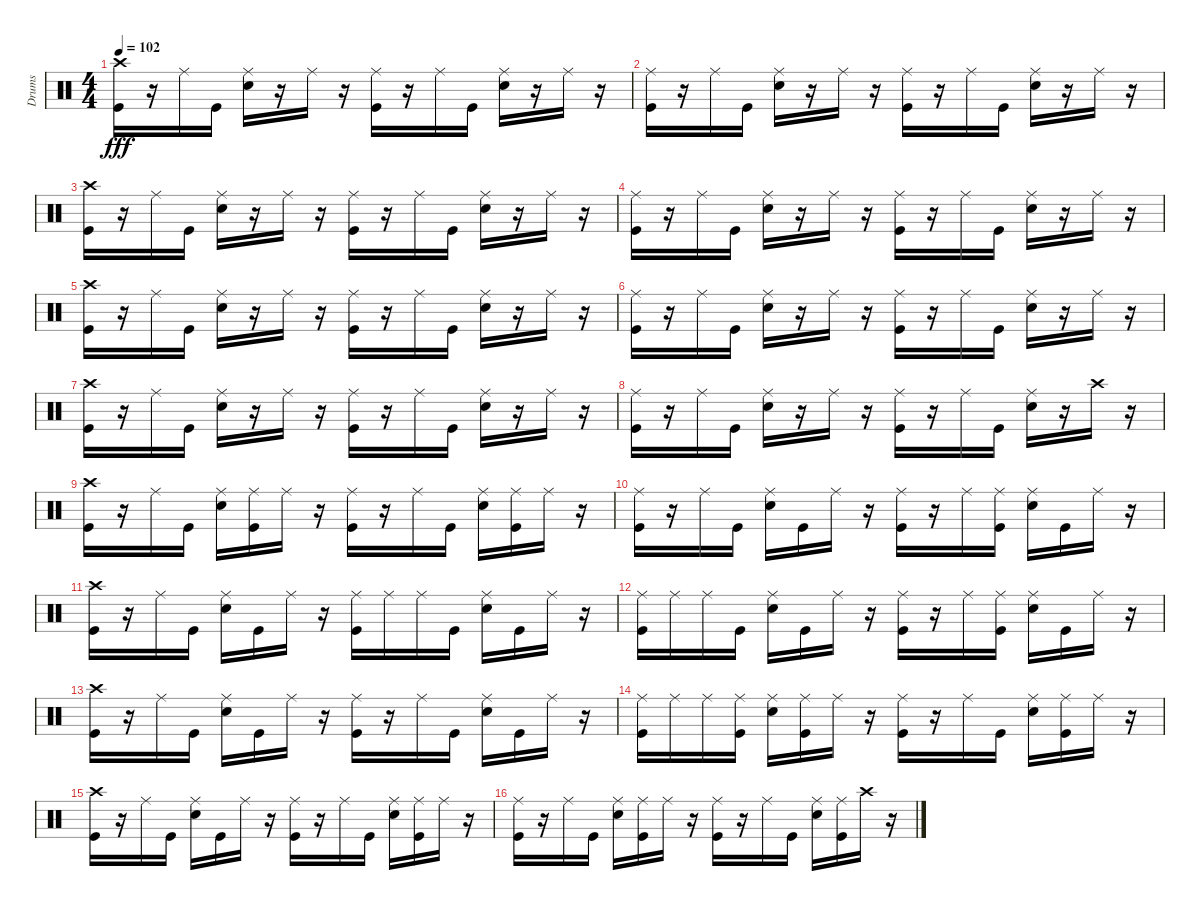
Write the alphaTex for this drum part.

\track ("Drums" "Drums") {instrument percussion}
\staff {score}
\articulation defaults
\ts (4 4)
\tempo 102
\clef neutral
\ks c
("Crash high (hit)" "Kick (hit)").16{dy fff} r.16 "Ride (middle)".16 "Kick (hit)".16 ("Ride (middle)" "Snare (hit) 2").16 r.16 "Ride (middle)".16 r.16 ("Kick (hit)" "Ride (middle)").16 r.16 "Ride (middle)".16 "Kick (hit)".16 ("Snare (hit) 2" "Ride (middle)").16 r.16 "Ride (middle)".16 r.16 |
("Ride (middle)" "Kick (hit)").16 r.16 "Ride (middle)".16 "Kick (hit)".16 ("Snare (hit) 2" "Ride (middle)").16 r.16 "Ride (middle)".16 r.16 ("Ride (middle)" "Kick (hit)").16 r.16 "Ride (middle)".16 "Kick (hit)".16 ("Ride (middle)" "Snare (hit) 2").16 r.16 "Ride (middle)".16 r.16 |
("Kick (hit)" "Crash high (hit)").16 r.16 "Ride (middle)".16 "Kick (hit)".16 ("Snare (hit) 2" "Ride (middle)").16 r.16 "Ride (middle)".16 r.16 ("Ride (middle)" "Kick (hit)").16 r.16 "Ride (middle)".16 "Kick (hit)".16 ("Ride (middle)" "Snare (hit) 2").16 r.16 "Ride (middle)".16 r.16 |
("Kick (hit)" "Ride (middle)").16 r.16 "Ride (middle)".16 "Kick (hit)".16 ("Ride (middle)" "Snare (hit) 2").16 r.16 "Ride (middle)".16 r.16 ("Kick (hit)" "Ride (middle)").16 r.16 "Ride (middle)".16 "Kick (hit)".16 ("Snare (hit) 2" "Ride (middle)").16 r.16 "Ride (middle)".16 r.16 |
("Kick (hit)" "Crash high (hit)").16 r.16 "Ride (middle)".16 "Kick (hit)".16 ("Snare (hit) 2" "Ride (middle)").16 r.16 "Ride (middle)".16 r.16 ("Ride (middle)" "Kick (hit)").16 r.16 "Ride (middle)".16 "Kick (hit)".16 ("Ride (middle)" "Snare (hit) 2").16 r.16 "Ride (middle)".16 r.16 |
("Kick (hit)" "Ride (middle)").16 r.16 "Ride (middle)".16 "Kick (hit)".16 ("Ride (middle)" "Snare (hit) 2").16 r.16 "Ride (middle)".16 r.16 ("Kick (hit)" "Ride (middle)").16 r.16 "Ride (middle)".16 "Kick (hit)".16 ("Snare (hit) 2" "Ride (middle)").16 r.16 "Ride (middle)".16 r.16 |
("Crash high (hit)" "Kick (hit)").16 r.16 "Ride (middle)".16 "Kick (hit)".16 ("Ride (middle)" "Snare (hit) 2").16 r.16 "Ride (middle)".16 r.16 ("Kick (hit)" "Ride (middle)").16 r.16 "Ride (middle)".16 "Kick (hit)".16 ("Snare (hit) 2" "Ride (middle)").16 r.16 "Ride (middle)".16 r.16 |
("Ride (middle)" "Kick (hit)").16 r.16 "Ride (middle)".16 "Kick (hit)".16 ("Snare (hit) 2" "Ride (middle)").16 r.16 "Ride (middle)".16 r.16 ("Ride (middle)" "Kick (hit)").16 r.16 "Ride (middle)".16 "Kick (hit)".16 ("Ride (middle)" "Snare (hit) 2").16 r.16 "Crash high (hit)".16 r.16 |
("Crash high (hit)" "Kick (hit)").16 r.16 "Ride (middle)".16 "Kick (hit)".16 ("Ride (middle)" "Snare (hit) 2").16 ("Kick (hit)" "Ride (middle)").16 "Ride (middle)".16 r.16 ("Kick (hit)" "Ride (middle)").16 r.16 "Ride (middle)".16 "Kick (hit)".16 ("Snare (hit) 2" "Ride (middle)").16 ("Kick (hit)" "Ride (middle)").16 "Ride (middle)".16 r.16 |
("Ride (middle)" "Kick (hit)").16 r.16 "Ride (middle)".16 "Kick (hit)".16 ("Snare (hit) 2" "Ride (middle)").16 "Kick (hit)".16 "Ride (middle)".16 r.16 ("Ride (middle)" "Kick (hit)").16 r.16 "Ride (middle)".16 ("Ride (middle)" "Kick (hit)").16 ("Ride (middle)" "Snare (hit) 2").16 "Kick (hit)".16 "Ride (middle)".16 r.16 |
("Kick (hit)" "Crash high (hit)").16 r.16 "Ride (middle)".16 "Kick (hit)".16 ("Snare (hit) 2" "Ride (middle)").16 "Kick (hit)".16 "Ride (middle)".16 r.16 ("Ride (middle)" "Kick (hit)").16 "Ride (middle)".16 "Ride (middle)".16 "Kick (hit)".16 ("Ride (middle)" "Snare (hit) 2").16 "Kick (hit)".16 "Ride (middle)".16 r.16 |
("Kick (hit)" "Ride (middle)").16 "Ride (middle)".16 "Ride (middle)".16 "Kick (hit)".16 ("Ride (middle)" "Snare (hit) 2").16 "Kick (hit)".16 "Ride (middle)".16 r.16 ("Kick (hit)" "Ride (middle)").16 r.16 "Ride (middle)".16 ("Kick (hit)" "Ride (middle)").16 ("Snare (hit) 2" "Ride (middle)").16 "Kick (hit)".16 "Ride (middle)".16 r.16 |
("Crash high (hit)" "Kick (hit)").16 r.16 "Ride (middle)".16 "Kick (hit)".16 ("Ride (middle)" "Snare (hit) 2").16 "Kick (hit)".16 "Ride (middle)".16 r.16 ("Kick (hit)" "Ride (middle)").16 r.16 "Ride (middle)".16 "Kick (hit)".16 ("Snare (hit) 2" "Ride (middle)").16 "Kick (hit)".16 "Ride (middle)".16 r.16 |
("Ride (middle)" "Kick (hit)").16 "Ride (middle)".16 "Ride (middle)".16 ("Ride (middle)" "Kick (hit)").16 ("Snare (hit) 2" "Ride (middle)").16 ("Ride (middle)" "Kick (hit)").16 "Ride (middle)".16 r.16 ("Ride (middle)" "Kick (hit)").16 r.16 "Ride (middle)".16 "Kick (hit)".16 ("Ride (middle)" "Snare (hit) 2").16 ("Ride (middle)" "Kick (hit)").16 "Ride (middle)".16 r.16 |
("Crash high (hit)" "Kick (hit)").16 r.16 "Ride (middle)".16 "Kick (hit)".16 ("Ride (middle)" "Snare (hit) 2").16 "Kick (hit)".16 "Ride (middle)".16 r.16 ("Kick (hit)" "Ride (middle)").16 r.16 "Ride (middle)".16 "Kick (hit)".16 ("Snare (hit) 2" "Ride (middle)").16 ("Ride (middle)" "Kick (hit)").16 "Ride (middle)".16 r.16 |
("Ride (middle)" "Kick (hit)").16 r.16 "Ride (middle)".16 "Kick (hit)".16 ("Snare (hit) 2" "Ride (middle)").16 ("Ride (middle)" "Kick (hit)").16 "Ride (middle)".16 r.16 ("Ride (middle)" "Kick (hit)").16 r.16 "Ride (middle)".16 "Kick (hit)".16 ("Ride (middle)" "Snare (hit) 2").16 ("Ride (middle)" "Kick (hit)").16 "Crash high (hit)".16 r.16
